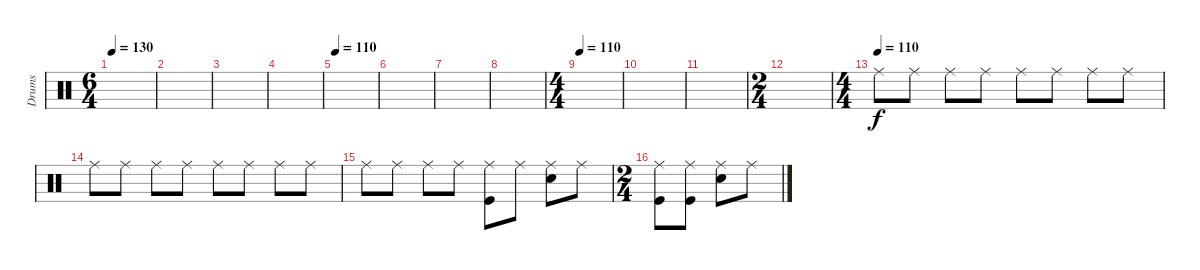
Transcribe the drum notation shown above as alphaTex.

\track ("Drums" "Drums") {instrument percussion}
\staff {score}
\articulation defaults
\ts (6 4)
\tempo 130
\clef neutral
\ks c
|
|
|
|
\tempo 110
|
|
|
|
\ts (4 4)
\section ("" "")
\tempo 110
|
|
|
\ts (2 4)
|
\ts (4 4)
\tempo (110)
"Ride (middle)".8{dy f volume 13} "Ride (middle)".8 "Ride (middle)".8 "Ride (middle)".8 "Ride (middle)".8 "Ride (middle)".8 "Ride (middle)".8 "Ride (middle)".8 |
"Ride (middle)".8 "Ride (middle)".8 "Ride (middle)".8 "Ride (middle)".8 "Ride (middle)".8 "Ride (middle)".8 "Ride (middle)".8 "Ride (middle)".8 |
"Ride (middle)".8 "Ride (middle)".8 "Ride (middle)".8 "Ride (middle)".8 ("Ride (middle)" "Kick (hit)").8 "Ride (middle)".8 ("Ride (middle)" "Snare (hit) 2").8 "Ride (middle)".8 |
\ts (2 4)
("Ride (middle)" "Kick (hit)").8 ("Ride (middle)" "Kick (hit)").8 ("Ride (middle)" "Snare (hit) 2").8 "Ride (middle)".8
